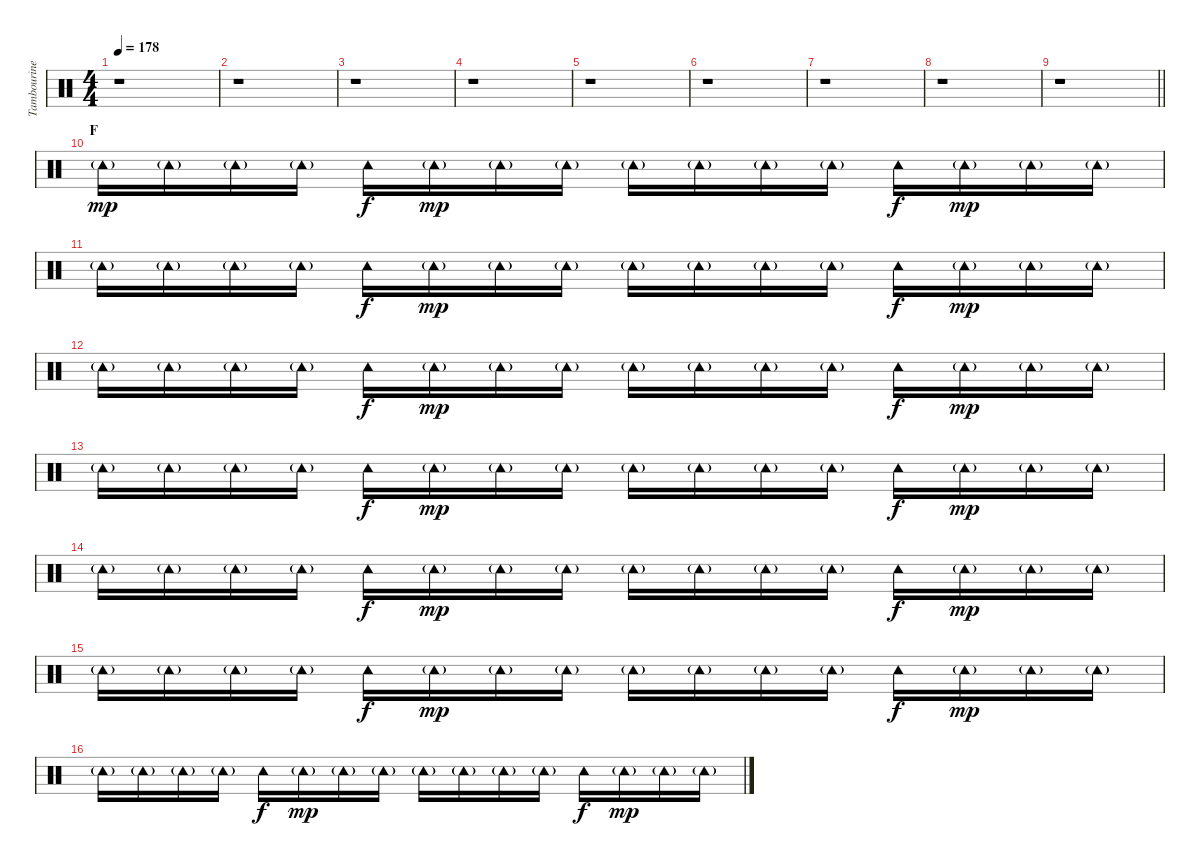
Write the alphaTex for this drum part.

\track ("Tambourine" "Tambourine") {instrument percussion}
\staff {score}
\articulation defaults
\ts (4 4)
\tempo 178
\clef neutral
\ks c
r.1{dy mp} |
r.1 |
r.1 |
r.1 |
r.1 |
r.1 |
r.1 |
r.1 |
\barLineRight lightlight
r.1 |
\section ("" "F")
"Tambourine (hit)"{g}.16 "Tambourine (hit)"{g}.16 "Tambourine (hit)"{g}.16 "Tambourine (hit)"{g}.16 "Tambourine (hit)".16{dy f} "Tambourine (hit)"{g}.16{dy mp} "Tambourine (hit)"{g}.16 "Tambourine (hit)"{g}.16 "Tambourine (hit)"{g}.16 "Tambourine (hit)"{g}.16 "Tambourine (hit)"{g}.16 "Tambourine (hit)"{g}.16 "Tambourine (hit)".16{dy f} "Tambourine (hit)"{g}.16{dy mp} "Tambourine (hit)"{g}.16 "Tambourine (hit)"{g}.16 |
"Tambourine (hit)"{g}.16 "Tambourine (hit)"{g}.16 "Tambourine (hit)"{g}.16 "Tambourine (hit)"{g}.16 "Tambourine (hit)".16{dy f} "Tambourine (hit)"{g}.16{dy mp} "Tambourine (hit)"{g}.16 "Tambourine (hit)"{g}.16 "Tambourine (hit)"{g}.16 "Tambourine (hit)"{g}.16 "Tambourine (hit)"{g}.16 "Tambourine (hit)"{g}.16 "Tambourine (hit)".16{dy f} "Tambourine (hit)"{g}.16{dy mp} "Tambourine (hit)"{g}.16 "Tambourine (hit)"{g}.16 |
"Tambourine (hit)"{g}.16 "Tambourine (hit)"{g}.16 "Tambourine (hit)"{g}.16 "Tambourine (hit)"{g}.16 "Tambourine (hit)".16{dy f} "Tambourine (hit)"{g}.16{dy mp} "Tambourine (hit)"{g}.16 "Tambourine (hit)"{g}.16 "Tambourine (hit)"{g}.16 "Tambourine (hit)"{g}.16 "Tambourine (hit)"{g}.16 "Tambourine (hit)"{g}.16 "Tambourine (hit)".16{dy f} "Tambourine (hit)"{g}.16{dy mp} "Tambourine (hit)"{g}.16 "Tambourine (hit)"{g}.16 |
"Tambourine (hit)"{g}.16 "Tambourine (hit)"{g}.16 "Tambourine (hit)"{g}.16 "Tambourine (hit)"{g}.16 "Tambourine (hit)".16{dy f} "Tambourine (hit)"{g}.16{dy mp} "Tambourine (hit)"{g}.16 "Tambourine (hit)"{g}.16 "Tambourine (hit)"{g}.16 "Tambourine (hit)"{g}.16 "Tambourine (hit)"{g}.16 "Tambourine (hit)"{g}.16 "Tambourine (hit)".16{dy f} "Tambourine (hit)"{g}.16{dy mp} "Tambourine (hit)"{g}.16 "Tambourine (hit)"{g}.16 |
"Tambourine (hit)"{g}.16 "Tambourine (hit)"{g}.16 "Tambourine (hit)"{g}.16 "Tambourine (hit)"{g}.16 "Tambourine (hit)".16{dy f} "Tambourine (hit)"{g}.16{dy mp} "Tambourine (hit)"{g}.16 "Tambourine (hit)"{g}.16 "Tambourine (hit)"{g}.16 "Tambourine (hit)"{g}.16 "Tambourine (hit)"{g}.16 "Tambourine (hit)"{g}.16 "Tambourine (hit)".16{dy f} "Tambourine (hit)"{g}.16{dy mp} "Tambourine (hit)"{g}.16 "Tambourine (hit)"{g}.16 |
"Tambourine (hit)"{g}.16 "Tambourine (hit)"{g}.16 "Tambourine (hit)"{g}.16 "Tambourine (hit)"{g}.16 "Tambourine (hit)".16{dy f} "Tambourine (hit)"{g}.16{dy mp} "Tambourine (hit)"{g}.16 "Tambourine (hit)"{g}.16 "Tambourine (hit)"{g}.16 "Tambourine (hit)"{g}.16 "Tambourine (hit)"{g}.16 "Tambourine (hit)"{g}.16 "Tambourine (hit)".16{dy f} "Tambourine (hit)"{g}.16{dy mp} "Tambourine (hit)"{g}.16 "Tambourine (hit)"{g}.16 |
"Tambourine (hit)"{g}.16 "Tambourine (hit)"{g}.16 "Tambourine (hit)"{g}.16 "Tambourine (hit)"{g}.16 "Tambourine (hit)".16{dy f} "Tambourine (hit)"{g}.16{dy mp} "Tambourine (hit)"{g}.16 "Tambourine (hit)"{g}.16 "Tambourine (hit)"{g}.16 "Tambourine (hit)"{g}.16 "Tambourine (hit)"{g}.16 "Tambourine (hit)"{g}.16 "Tambourine (hit)".16{dy f} "Tambourine (hit)"{g}.16{dy mp} "Tambourine (hit)"{g}.16 "Tambourine (hit)"{g}.16
